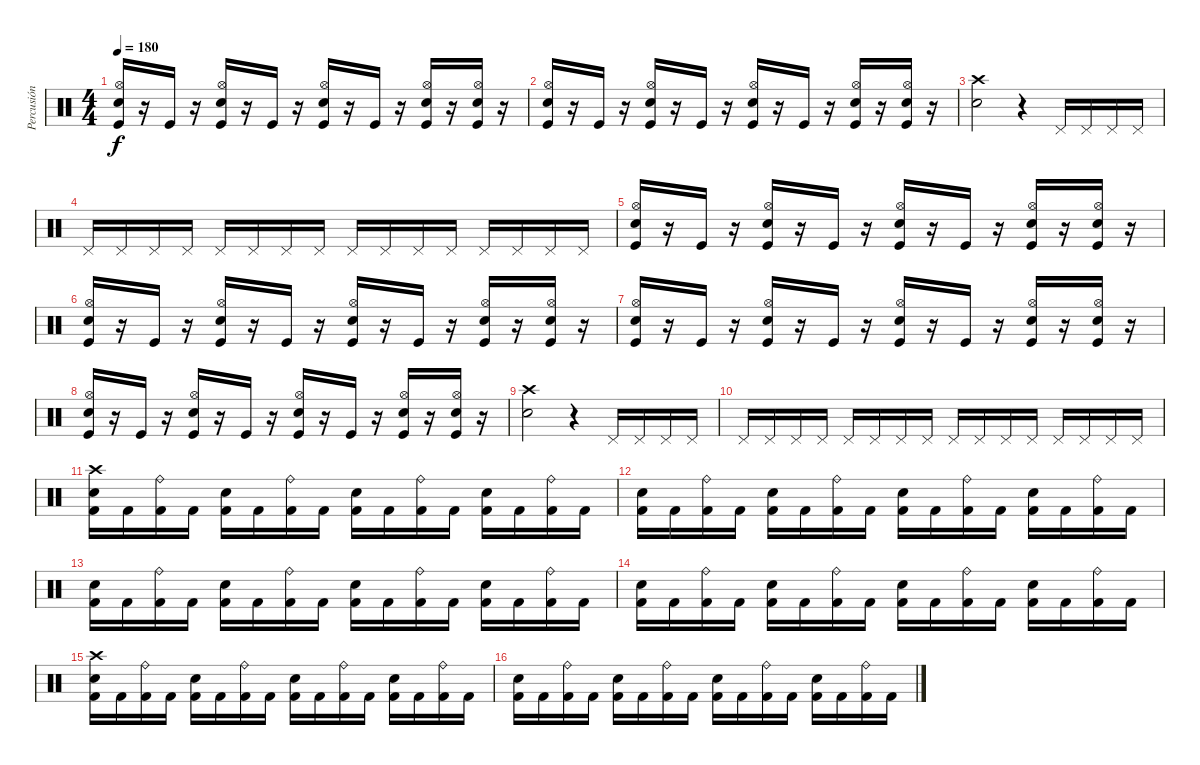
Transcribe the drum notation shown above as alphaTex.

\track ("Percusión" "Percusión") {instrument percussion}
\staff {score}
\articulation defaults
\ts (4 4)
\tempo 180
\clef neutral
\ks c
("Snare (hit) 2" "Hi-Hat (open)" "Kick (hit)").16{dy f} r.16 "Kick (hit)".16 r.16 ("Snare (hit) 2" "Hi-Hat (open)" "Kick (hit)").16 r.16 "Kick (hit)".16 r.16 ("Snare (hit) 2" "Hi-Hat (open)" "Kick (hit)").16 r.16 "Kick (hit)".16 r.16 ("Snare (hit) 2" "Hi-Hat (open)" "Kick (hit)").16 r.16 ("Snare (hit) 2" "Hi-Hat (open)" "Kick (hit)").16 r.16 |
("Snare (hit) 2" "Hi-Hat (open)" "Kick (hit)").16 r.16 "Kick (hit)".16 r.16 ("Snare (hit) 2" "Hi-Hat (open)" "Kick (hit)").16 r.16 "Kick (hit)".16 r.16 ("Snare (hit) 2" "Hi-Hat (open)" "Kick (hit)").16 r.16 "Kick (hit)".16 r.16 ("Snare (hit) 2" "Hi-Hat (open)" "Kick (hit)").16 r.16 ("Snare (hit) 2" "Hi-Hat (open)" "Kick (hit)").16 r.16 |
("Crash high (hit)" "Snare (hit) 2").2 r.4 "Pedal Hi-Hat (hit)".16 "Pedal Hi-Hat (hit)".16 "Pedal Hi-Hat (hit)".16 "Pedal Hi-Hat (hit)".16 |
"Pedal Hi-Hat (hit)".16 "Pedal Hi-Hat (hit)".16 "Pedal Hi-Hat (hit)".16 "Pedal Hi-Hat (hit)".16 "Pedal Hi-Hat (hit)".16 "Pedal Hi-Hat (hit)".16 "Pedal Hi-Hat (hit)".16 "Pedal Hi-Hat (hit)".16 "Pedal Hi-Hat (hit)".16 "Pedal Hi-Hat (hit)".16 "Pedal Hi-Hat (hit)".16 "Pedal Hi-Hat (hit)".16 "Pedal Hi-Hat (hit)".16 "Pedal Hi-Hat (hit)".16 "Pedal Hi-Hat (hit)".16 "Pedal Hi-Hat (hit)".16 |
("Snare (hit) 2" "Hi-Hat (open)" "Kick (hit)").16 r.16 "Kick (hit)".16 r.16 ("Snare (hit) 2" "Hi-Hat (open)" "Kick (hit)").16 r.16 "Kick (hit)".16 r.16 ("Snare (hit) 2" "Hi-Hat (open)" "Kick (hit)").16 r.16 "Kick (hit)".16 r.16 ("Snare (hit) 2" "Hi-Hat (open)" "Kick (hit)").16 r.16 ("Snare (hit) 2" "Hi-Hat (open)" "Kick (hit)").16 r.16 |
("Snare (hit) 2" "Hi-Hat (open)" "Kick (hit)").16 r.16 "Kick (hit)".16 r.16 ("Snare (hit) 2" "Hi-Hat (open)" "Kick (hit)").16 r.16 "Kick (hit)".16 r.16 ("Snare (hit) 2" "Hi-Hat (open)" "Kick (hit)").16 r.16 "Kick (hit)".16 r.16 ("Snare (hit) 2" "Hi-Hat (open)" "Kick (hit)").16 r.16 ("Snare (hit) 2" "Hi-Hat (open)" "Kick (hit)").16 r.16 |
("Snare (hit) 2" "Hi-Hat (open)" "Kick (hit)").16 r.16 "Kick (hit)".16 r.16 ("Snare (hit) 2" "Hi-Hat (open)" "Kick (hit)").16 r.16 "Kick (hit)".16 r.16 ("Snare (hit) 2" "Hi-Hat (open)" "Kick (hit)").16 r.16 "Kick (hit)".16 r.16 ("Snare (hit) 2" "Hi-Hat (open)" "Kick (hit)").16 r.16 ("Snare (hit) 2" "Hi-Hat (open)" "Kick (hit)").16 r.16 |
("Snare (hit) 2" "Hi-Hat (open)" "Kick (hit)").16 r.16 "Kick (hit)".16 r.16 ("Snare (hit) 2" "Hi-Hat (open)" "Kick (hit)").16 r.16 "Kick (hit)".16 r.16 ("Snare (hit) 2" "Hi-Hat (open)" "Kick (hit)").16 r.16 "Kick (hit)".16 r.16 ("Snare (hit) 2" "Hi-Hat (open)" "Kick (hit)").16 r.16 ("Snare (hit) 2" "Hi-Hat (open)" "Kick (hit)").16 r.16 |
("Crash high (hit)" "Snare (hit) 2").2 r.4 "Pedal Hi-Hat (hit)".16 "Pedal Hi-Hat (hit)".16 "Pedal Hi-Hat (hit)".16 "Pedal Hi-Hat (hit)".16 |
"Pedal Hi-Hat (hit)".16 "Pedal Hi-Hat (hit)".16 "Pedal Hi-Hat (hit)".16 "Pedal Hi-Hat (hit)".16 "Pedal Hi-Hat (hit)".16 "Pedal Hi-Hat (hit)".16 "Pedal Hi-Hat (hit)".16 "Pedal Hi-Hat (hit)".16 "Pedal Hi-Hat (hit)".16 "Pedal Hi-Hat (hit)".16 "Pedal Hi-Hat (hit)".16 "Pedal Hi-Hat (hit)".16 "Pedal Hi-Hat (hit)".16 "Pedal Hi-Hat (hit)".16 "Pedal Hi-Hat (hit)".16 "Pedal Hi-Hat (hit)".16 |
("Snare (hit) 2" "Crash high (hit)" "Kick (hit) 2").16 "Kick (hit) 2".16 ("Ride (bell)" "Kick (hit) 2").16 "Kick (hit) 2".16 ("Snare (hit) 2" "Kick (hit) 2").16 "Kick (hit) 2".16 ("Ride (bell)" "Kick (hit) 2").16 "Kick (hit) 2".16 ("Snare (hit) 2" "Kick (hit) 2").16 "Kick (hit) 2".16 ("Ride (bell)" "Kick (hit) 2").16 "Kick (hit) 2".16 ("Snare (hit) 2" "Kick (hit) 2").16 "Kick (hit) 2".16 ("Ride (bell)" "Kick (hit) 2").16 "Kick (hit) 2".16 |
("Snare (hit) 2" "Kick (hit) 2").16 "Kick (hit) 2".16 ("Ride (bell)" "Kick (hit) 2").16 "Kick (hit) 2".16 ("Snare (hit) 2" "Kick (hit) 2").16 "Kick (hit) 2".16 ("Ride (bell)" "Kick (hit) 2").16 "Kick (hit) 2".16 ("Snare (hit) 2" "Kick (hit) 2").16 "Kick (hit) 2".16 ("Ride (bell)" "Kick (hit) 2").16 "Kick (hit) 2".16 ("Snare (hit) 2" "Kick (hit) 2").16 "Kick (hit) 2".16 ("Ride (bell)" "Kick (hit) 2").16 "Kick (hit) 2".16 |
("Snare (hit) 2" "Kick (hit) 2").16 "Kick (hit) 2".16 ("Ride (bell)" "Kick (hit) 2").16 "Kick (hit) 2".16 ("Snare (hit) 2" "Kick (hit) 2").16 "Kick (hit) 2".16 ("Ride (bell)" "Kick (hit) 2").16 "Kick (hit) 2".16 ("Snare (hit) 2" "Kick (hit) 2").16 "Kick (hit) 2".16 ("Ride (bell)" "Kick (hit) 2").16 "Kick (hit) 2".16 ("Snare (hit) 2" "Kick (hit) 2").16 "Kick (hit) 2".16 ("Ride (bell)" "Kick (hit) 2").16 "Kick (hit) 2".16 |
("Snare (hit) 2" "Kick (hit) 2").16 "Kick (hit) 2".16 ("Ride (bell)" "Kick (hit) 2").16 "Kick (hit) 2".16 ("Snare (hit) 2" "Kick (hit) 2").16 "Kick (hit) 2".16 ("Ride (bell)" "Kick (hit) 2").16 "Kick (hit) 2".16 ("Snare (hit) 2" "Kick (hit) 2").16 "Kick (hit) 2".16 ("Ride (bell)" "Kick (hit) 2").16 "Kick (hit) 2".16 ("Snare (hit) 2" "Kick (hit) 2").16 "Kick (hit) 2".16 ("Ride (bell)" "Kick (hit) 2").16 "Kick (hit) 2".16 |
("Snare (hit) 2" "Crash high (hit)" "Kick (hit) 2").16 "Kick (hit) 2".16 ("Ride (bell)" "Kick (hit) 2").16 "Kick (hit) 2".16 ("Snare (hit) 2" "Kick (hit) 2").16 "Kick (hit) 2".16 ("Ride (bell)" "Kick (hit) 2").16 "Kick (hit) 2".16 ("Snare (hit) 2" "Kick (hit) 2").16 "Kick (hit) 2".16 ("Ride (bell)" "Kick (hit) 2").16 "Kick (hit) 2".16 ("Snare (hit) 2" "Kick (hit) 2").16 "Kick (hit) 2".16 ("Ride (bell)" "Kick (hit) 2").16 "Kick (hit) 2".16 |
("Snare (hit) 2" "Kick (hit) 2").16 "Kick (hit) 2".16 ("Ride (bell)" "Kick (hit) 2").16 "Kick (hit) 2".16 ("Snare (hit) 2" "Kick (hit) 2").16 "Kick (hit) 2".16 ("Ride (bell)" "Kick (hit) 2").16 "Kick (hit) 2".16 ("Snare (hit) 2" "Kick (hit) 2").16 "Kick (hit) 2".16 ("Ride (bell)" "Kick (hit) 2").16 "Kick (hit) 2".16 ("Snare (hit) 2" "Kick (hit) 2").16 "Kick (hit) 2".16 ("Ride (bell)" "Kick (hit) 2").16 "Kick (hit) 2".16
